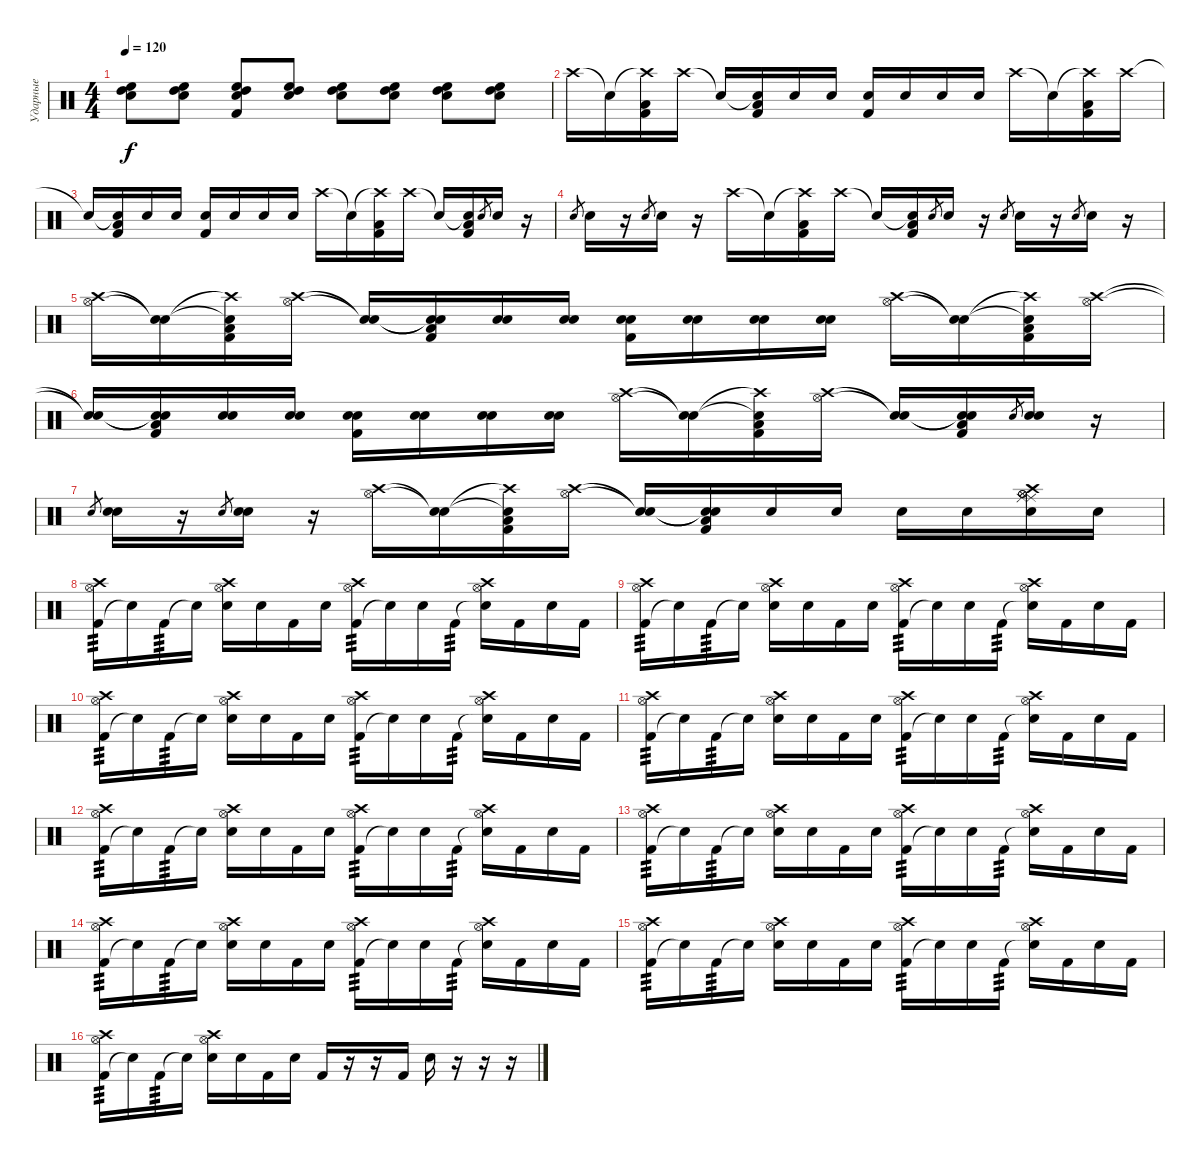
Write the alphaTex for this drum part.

\track ("Ударные" "Ударные") {instrument percussion}
\staff {score}
\articulation defaults
\ts (4 4)
\tempo 120
\clef neutral
\ks c
("Electric Snare (hit)" "High Floor Tom (hit)" "High Tom (hit)").8{dy f} ("Electric Snare (hit)" "High Floor Tom (hit)" "High Tom (hit)").8 ("Electric Snare (hit)" "High Floor Tom (hit)" "High Tom (hit)" "Kick (hit) 2").8 ("Electric Snare (hit)" "High Floor Tom (hit)" "High Tom (hit)").8 ("Electric Snare (hit)" "High Floor Tom (hit)" "High Tom (hit)").8 ("Electric Snare (hit)" "High Floor Tom (hit)" "High Tom (hit)").8 ("Electric Snare (hit)" "High Floor Tom (hit)" "High Tom (hit)").8 ("Electric Snare (hit)" "High Floor Tom (hit)" "High Tom (hit)").8 |
"Crash high (hit)".16 "Snare (hit)"{t}.16 ("Crash high (hit)"{t} "Low Floor Tom (hit)" "Kick (hit) 2").16 "Crash high (hit)".16 "Snare (hit)"{t}.16 ("Snare (hit)"{t} "Low Floor Tom (hit)" "Kick (hit) 2").16 "Electric Snare (hit)".16 "Electric Snare (hit)".16 ("Electric Snare (hit)" "Kick (hit) 2").16 "Electric Snare (hit)".16 "Electric Snare (hit)".16 "Electric Snare (hit)".16 "Crash high (hit)".16 "Snare (hit)"{t}.16 ("Crash high (hit)"{t} "Low Floor Tom (hit)" "Kick (hit) 2").16 "Crash high (hit)".16 |
"Snare (hit)"{t}.16 ("Snare (hit)"{t} "Low Floor Tom (hit)" "Kick (hit) 2").16 "Electric Snare (hit)".16 "Electric Snare (hit)".16 ("Electric Snare (hit)" "Kick (hit) 2").16 "Electric Snare (hit)".16 "Electric Snare (hit)".16 "Electric Snare (hit)".16 "Crash high (hit)".16 "Snare (hit)"{t}.16 ("Crash high (hit)"{t} "Low Floor Tom (hit)" "Kick (hit) 2").16 "Crash high (hit)".16 "Snare (hit)"{t}.16 ("Snare (hit)"{t} "Low Floor Tom (hit)" "Kick (hit) 2").16 "Electric Snare (hit)".8{gr} "Electric Snare (hit)".16 r.16 |
"Electric Snare (hit)".8{gr} "Electric Snare (hit)".16 r.16 "Electric Snare (hit)".8{gr} "Electric Snare (hit)".16 r.16 "Crash high (hit)".16 "Snare (hit)"{t}.16 ("Crash high (hit)"{t} "Low Floor Tom (hit)" "Kick (hit) 2").16 "Crash high (hit)".16 "Snare (hit)"{t}.16 ("Snare (hit)"{t} "Low Floor Tom (hit)" "Kick (hit) 2").16 "Electric Snare (hit)".8{gr} "Electric Snare (hit)".16 r.16 "Electric Snare (hit)".8{gr} "Electric Snare (hit)".16 r.16 "Electric Snare (hit)".8{gr} "Electric Snare (hit)".16 r.16 |
("Crash high (hit)" "Hi-Hat (open)").16 ("Snare (hit)"{t} "Snare (hit)"{t}).16 ("Crash high (hit)"{t} "Snare (hit)"{t} "Low Floor Tom (hit)" "Kick (hit) 2").16 ("Crash high (hit)" "Hi-Hat (open)").16 ("Snare (hit)"{t} "Snare (hit)"{t}).16 ("Snare (hit)"{t} "Snare (hit)"{t} "Low Floor Tom (hit)" "Kick (hit) 2").16 ("Electric Snare (hit)" "Snare (hit) 2").16 ("Electric Snare (hit)" "Snare (hit) 2").16 ("Electric Snare (hit)" "Snare (hit) 2" "Kick (hit) 2").16 ("Electric Snare (hit)" "Snare (hit) 2").16 ("Electric Snare (hit)" "Snare (hit) 2").16 ("Electric Snare (hit)" "Snare (hit) 2").16 ("Crash high (hit)" "Hi-Hat (open)").16 ("Snare (hit)"{t} "Snare (hit)"{t}).16 ("Crash high (hit)"{t} "Snare (hit)"{t} "Low Floor Tom (hit)" "Kick (hit) 2").16 ("Crash high (hit)" "Hi-Hat (open)").16 |
("Snare (hit)"{t} "Snare (hit)"{t}).16 ("Snare (hit)"{t} "Snare (hit)"{t} "Low Floor Tom (hit)" "Kick (hit) 2").16 ("Electric Snare (hit)" "Snare (hit) 2").16 ("Electric Snare (hit)" "Snare (hit) 2").16 ("Electric Snare (hit)" "Snare (hit) 2" "Kick (hit) 2").16 ("Electric Snare (hit)" "Snare (hit) 2").16 ("Electric Snare (hit)" "Snare (hit) 2").16 ("Electric Snare (hit)" "Snare (hit) 2").16 ("Crash high (hit)" "Hi-Hat (open)").16 ("Snare (hit)"{t} "Snare (hit)"{t}).16 ("Crash high (hit)"{t} "Snare (hit)"{t} "Low Floor Tom (hit)" "Kick (hit) 2").16 ("Crash high (hit)" "Hi-Hat (open)").16 ("Snare (hit)"{t} "Snare (hit)"{t}).16 ("Snare (hit)"{t} "Snare (hit)"{t} "Low Floor Tom (hit)" "Kick (hit) 2").16 "Electric Snare (hit)".8{gr} ("Electric Snare (hit)" "Snare (hit) 2").16 r.16 |
"Electric Snare (hit)".8{gr} ("Electric Snare (hit)" "Snare (hit) 2").16 r.16 "Electric Snare (hit)".8{gr} ("Electric Snare (hit)" "Snare (hit) 2").16 r.16 ("Crash high (hit)" "Hi-Hat (open)").16 ("Snare (hit)"{t} "Snare (hit)"{t}).16 ("Crash high (hit)"{t} "Snare (hit)"{t} "Low Floor Tom (hit)" "Kick (hit) 2").16 ("Crash high (hit)" "Hi-Hat (open)").16 ("Snare (hit)"{t} "Snare (hit)"{t}).16 ("Snare (hit)"{t} "Snare (hit)"{t} "Low Floor Tom (hit)" "Kick (hit) 2").16 "Electric Snare (hit)".16 "Electric Snare (hit)".16 "Electric Snare (hit)".16 "Electric Snare (hit)".16 ("Electric Snare (hit)" "Ride (middle)" "Ride (middle)" "Hi-Hat (open)" "Hi-Hat (open)" "Crash high (hit)").16 "Electric Snare (hit)".16 |
("Kick (hit) 2" "Hi-Hat (open)" "Crash high (hit)").16{tp 3} "Snare (hit)"{t}.16 "Kick (hit) 2".16{tp 3} "Snare (hit)"{t}.16 ("Electric Snare (hit)" "Hi-Hat (open)" "Crash high (hit)").16 "Electric Snare (hit)".16 "Kick (hit) 2".16 "Electric Snare (hit)".16 ("Kick (hit) 2" "Hi-Hat (open)" "Crash high (hit)").16{tp 3} "Snare (hit)"{t}.16 "Electric Snare (hit)".16 "Kick (hit) 2".16{tp 3} ("Snare (hit)"{t} "Hi-Hat (open)" "Crash high (hit)").16 "Kick (hit) 2".16 "Electric Snare (hit)".16 "Kick (hit) 2".16 |
("Kick (hit) 2" "Hi-Hat (open)" "Crash high (hit)").16{tp 3} "Snare (hit)"{t}.16 "Kick (hit) 2".16{tp 3} "Snare (hit)"{t}.16 ("Electric Snare (hit)" "Hi-Hat (open)" "Crash high (hit)").16 "Electric Snare (hit)".16 "Kick (hit) 2".16 "Electric Snare (hit)".16 ("Kick (hit) 2" "Hi-Hat (open)" "Crash high (hit)").16{tp 3} "Snare (hit)"{t}.16 "Electric Snare (hit)".16 "Kick (hit) 2".16{tp 3} ("Snare (hit)"{t} "Hi-Hat (open)" "Crash high (hit)").16 "Kick (hit) 2".16 "Electric Snare (hit)".16 "Kick (hit) 2".16 |
("Kick (hit) 2" "Hi-Hat (open)" "Crash high (hit)").16{tp 3} "Snare (hit)"{t}.16 "Kick (hit) 2".16{tp 3} "Snare (hit)"{t}.16 ("Electric Snare (hit)" "Hi-Hat (open)" "Crash high (hit)").16 "Electric Snare (hit)".16 "Kick (hit) 2".16 "Electric Snare (hit)".16 ("Kick (hit) 2" "Hi-Hat (open)" "Crash high (hit)").16{tp 3} "Snare (hit)"{t}.16 "Electric Snare (hit)".16 "Kick (hit) 2".16{tp 3} ("Snare (hit)"{t} "Hi-Hat (open)" "Crash high (hit)").16 "Kick (hit) 2".16 "Electric Snare (hit)".16 "Kick (hit) 2".16 |
("Kick (hit) 2" "Hi-Hat (open)" "Crash high (hit)").16{tp 3} "Snare (hit)"{t}.16 "Kick (hit) 2".16{tp 3} "Snare (hit)"{t}.16 ("Electric Snare (hit)" "Hi-Hat (open)" "Crash high (hit)").16 "Electric Snare (hit)".16 "Kick (hit) 2".16 "Electric Snare (hit)".16 ("Kick (hit) 2" "Hi-Hat (open)" "Crash high (hit)").16{tp 3} "Snare (hit)"{t}.16 "Electric Snare (hit)".16 "Kick (hit) 2".16{tp 3} ("Snare (hit)"{t} "Hi-Hat (open)" "Crash high (hit)").16 "Kick (hit) 2".16 "Electric Snare (hit)".16 "Kick (hit) 2".16 |
("Kick (hit) 2" "Hi-Hat (open)" "Crash high (hit)").16{tp 3} "Snare (hit)"{t}.16 "Kick (hit) 2".16{tp 3} "Snare (hit)"{t}.16 ("Electric Snare (hit)" "Hi-Hat (open)" "Crash high (hit)").16 "Electric Snare (hit)".16 "Kick (hit) 2".16 "Electric Snare (hit)".16 ("Kick (hit) 2" "Hi-Hat (open)" "Crash high (hit)").16{tp 3} "Snare (hit)"{t}.16 "Electric Snare (hit)".16 "Kick (hit) 2".16{tp 3} ("Snare (hit)"{t} "Hi-Hat (open)" "Crash high (hit)").16 "Kick (hit) 2".16 "Electric Snare (hit)".16 "Kick (hit) 2".16 |
("Kick (hit) 2" "Hi-Hat (open)" "Crash high (hit)").16{tp 3} "Snare (hit)"{t}.16 "Kick (hit) 2".16{tp 3} "Snare (hit)"{t}.16 ("Electric Snare (hit)" "Hi-Hat (open)" "Crash high (hit)").16 "Electric Snare (hit)".16 "Kick (hit) 2".16 "Electric Snare (hit)".16 ("Kick (hit) 2" "Hi-Hat (open)" "Crash high (hit)").16{tp 3} "Snare (hit)"{t}.16 "Electric Snare (hit)".16 "Kick (hit) 2".16{tp 3} ("Snare (hit)"{t} "Hi-Hat (open)" "Crash high (hit)").16 "Kick (hit) 2".16 "Electric Snare (hit)".16 "Kick (hit) 2".16 |
("Kick (hit) 2" "Hi-Hat (open)" "Crash high (hit)").16{tp 3} "Snare (hit)"{t}.16 "Kick (hit) 2".16{tp 3} "Snare (hit)"{t}.16 ("Electric Snare (hit)" "Hi-Hat (open)" "Crash high (hit)").16 "Electric Snare (hit)".16 "Kick (hit) 2".16 "Electric Snare (hit)".16 ("Kick (hit) 2" "Hi-Hat (open)" "Crash high (hit)").16{tp 3} "Snare (hit)"{t}.16 "Electric Snare (hit)".16 "Kick (hit) 2".16{tp 3} ("Snare (hit)"{t} "Hi-Hat (open)" "Crash high (hit)").16 "Kick (hit) 2".16 "Electric Snare (hit)".16 "Kick (hit) 2".16 |
("Kick (hit) 2" "Hi-Hat (open)" "Crash high (hit)").16{tp 3} "Snare (hit)"{t}.16 "Kick (hit) 2".16{tp 3} "Snare (hit)"{t}.16 ("Electric Snare (hit)" "Hi-Hat (open)" "Crash high (hit)").16 "Electric Snare (hit)".16 "Kick (hit) 2".16 "Electric Snare (hit)".16 ("Kick (hit) 2" "Hi-Hat (open)" "Crash high (hit)").16{tp 3} "Snare (hit)"{t}.16 "Electric Snare (hit)".16 "Kick (hit) 2".16{tp 3} ("Snare (hit)"{t} "Hi-Hat (open)" "Crash high (hit)").16 "Kick (hit) 2".16 "Electric Snare (hit)".16 "Kick (hit) 2".16 |
("Kick (hit) 2" "Hi-Hat (open)" "Crash high (hit)").16{tp 3} "Snare (hit)"{t}.16 "Kick (hit) 2".16{tp 3} "Snare (hit)"{t}.16 ("Electric Snare (hit)" "Hi-Hat (open)" "Crash high (hit)").16 "Electric Snare (hit)".16 "Kick (hit) 2".16 "Electric Snare (hit)".16 "Kick (hit) 2".16 r.16 r.16 "Kick (hit) 2".16 "Electric Snare (hit)".16 r.16 r.16 r.16
